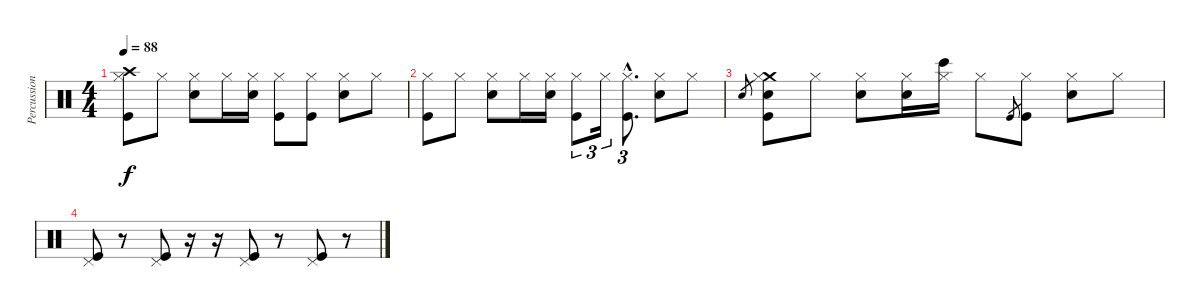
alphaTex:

\track ("Percussions" "Percussion") {instrument percussion}
\staff {score}
\articulation defaults
\ts (4 4)
\tempo 88
\clef neutral
\ks c
("Crash high (hit)" "Hi-Hat (closed)" "Kick (hit)").8{dy f} "Hi-Hat (closed)".8 ("Electric Snare (hit)" "Hi-Hat (closed)").8 "Hi-Hat (closed)".16 ("Electric Snare (hit)" "Hi-Hat (closed)").16 ("Hi-Hat (closed)" "Kick (hit)").8 ("Hi-Hat (closed)" "Kick (hit)").8 ("Electric Snare (hit)" "Hi-Hat (closed)").8 "Hi-Hat (closed)".8 |
("Hi-Hat (closed)" "Kick (hit)").8 "Hi-Hat (closed)".8 ("Electric Snare (hit)" "Hi-Hat (closed)").8 "Hi-Hat (closed)".16 ("Electric Snare (hit)" "Hi-Hat (closed)").16 ("Hi-Hat (closed)" "Kick (hit)").8{tu (3 2)} "Hi-Hat (closed)".16{tu (3 2)} ("Hi-Hat (closed)"{hac} "Kick (hit)"{hac}).8{d tu (3 2)} ("Electric Snare (hit)" "Hi-Hat (closed)").8 "Hi-Hat (closed)".8 |
"Electric Snare (hit)".8{gr} ("Crash medium (hit)" "Hi-Hat (closed)" "Electric Snare (hit)" "Kick (hit)").8 "Hi-Hat (closed)".8 ("Electric Snare (hit)" "Hi-Hat (closed)").8 ("Electric Snare (hit)" "Hi-Hat (closed)").16 ("Bongo High (hit)" "Hi-Hat (closed)").16 "Hi-Hat (closed)".8 "Kick (hit)".8{gr} ("Hi-Hat (closed)" "Kick (hit)").8 ("Electric Snare (hit)" "Hi-Hat (closed)").8 "Hi-Hat (closed)".8 |
("Pedal Hi-Hat (hit)" "Kick (hit)").8{volume 15} r.8 ("Pedal Hi-Hat (hit)" "Kick (hit)").8 r.16 r.16 ("Pedal Hi-Hat (hit)" "Kick (hit)").8 r.8 ("Pedal Hi-Hat (hit)" "Kick (hit)").8 r.8
